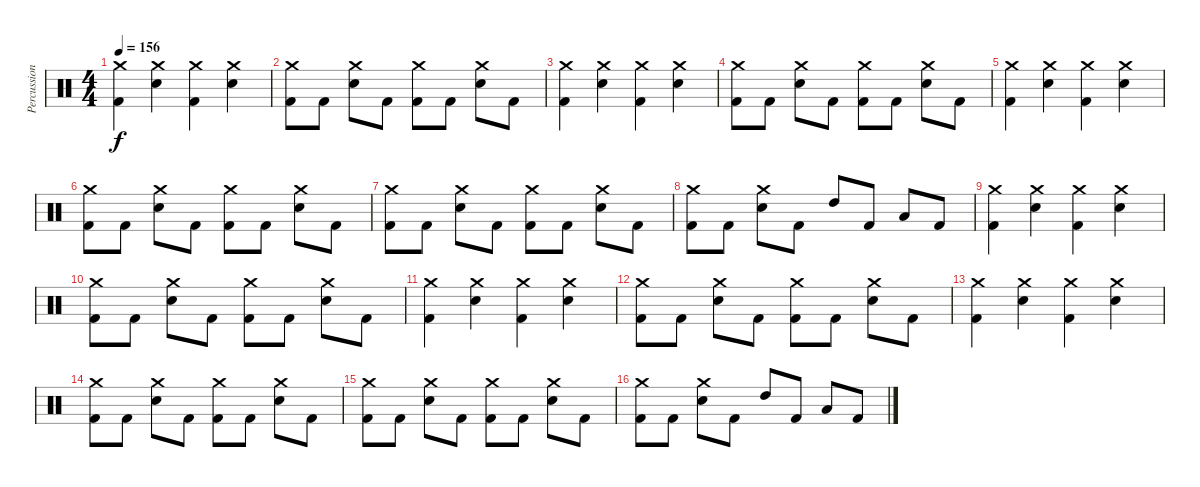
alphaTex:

\track ("Percussion" "Percussion") {instrument percussion}
\staff {score}
\articulation defaults
\ts (4 4)
\tempo 156
\clef neutral
\ks c
("Crash medium (hit)" "Kick (hit) 2").4{dy f} ("Crash medium (hit)" "Electric Snare (hit)").4 ("Crash medium (hit)" "Kick (hit) 2").4 ("Crash medium (hit)" "Electric Snare (hit)").4 |
("Crash medium (hit)" "Kick (hit) 2").8 "Kick (hit) 2".8 ("Crash medium (hit)" "Electric Snare (hit)").8 "Kick (hit) 2".8 ("Crash medium (hit)" "Kick (hit) 2").8 "Kick (hit) 2".8 ("Crash medium (hit)" "Electric Snare (hit)").8 "Kick (hit) 2".8 |
("Crash medium (hit)" "Kick (hit) 2").4 ("Crash medium (hit)" "Electric Snare (hit)").4 ("Crash medium (hit)" "Kick (hit) 2").4 ("Crash medium (hit)" "Electric Snare (hit)").4 |
("Crash medium (hit)" "Kick (hit) 2").8 "Kick (hit) 2".8 ("Crash medium (hit)" "Electric Snare (hit)").8 "Kick (hit) 2".8 ("Crash medium (hit)" "Kick (hit) 2").8 "Kick (hit) 2".8 ("Crash medium (hit)" "Electric Snare (hit)").8 "Kick (hit) 2".8 |
("Crash medium (hit)" "Kick (hit) 2").4 ("Crash medium (hit)" "Electric Snare (hit)").4 ("Crash medium (hit)" "Kick (hit) 2").4 ("Crash medium (hit)" "Electric Snare (hit)").4 |
("Crash medium (hit)" "Kick (hit) 2").8 "Kick (hit) 2".8 ("Crash medium (hit)" "Electric Snare (hit)").8 "Kick (hit) 2".8 ("Crash medium (hit)" "Kick (hit) 2").8 "Kick (hit) 2".8 ("Crash medium (hit)" "Electric Snare (hit)").8 "Kick (hit) 2".8 |
("Crash medium (hit)" "Kick (hit) 2").8 "Kick (hit) 2".8 ("Crash medium (hit)" "Electric Snare (hit)").8 "Kick (hit) 2".8 ("Crash medium (hit)" "Kick (hit) 2").8 "Kick (hit) 2".8 ("Crash medium (hit)" "Electric Snare (hit)").8 "Kick (hit) 2".8 |
("Crash medium (hit)" "Kick (hit) 2").8 "Kick (hit) 2".8 ("Crash medium (hit)" "Electric Snare (hit)").8 "Kick (hit) 2".8 "High Tom (hit)".8 "Kick (hit) 2".8 "Low Tom (hit)".8 "Kick (hit) 2".8 |
("Crash medium (hit)" "Kick (hit) 2").4 ("Crash medium (hit)" "Electric Snare (hit)").4 ("Crash medium (hit)" "Kick (hit) 2").4 ("Crash medium (hit)" "Electric Snare (hit)").4 |
("Crash medium (hit)" "Kick (hit) 2").8 "Kick (hit) 2".8 ("Crash medium (hit)" "Electric Snare (hit)").8 "Kick (hit) 2".8 ("Crash medium (hit)" "Kick (hit) 2").8 "Kick (hit) 2".8 ("Crash medium (hit)" "Electric Snare (hit)").8 "Kick (hit) 2".8 |
("Crash medium (hit)" "Kick (hit) 2").4 ("Crash medium (hit)" "Electric Snare (hit)").4 ("Crash medium (hit)" "Kick (hit) 2").4 ("Crash medium (hit)" "Electric Snare (hit)").4 |
("Crash medium (hit)" "Kick (hit) 2").8 "Kick (hit) 2".8 ("Crash medium (hit)" "Electric Snare (hit)").8 "Kick (hit) 2".8 ("Crash medium (hit)" "Kick (hit) 2").8 "Kick (hit) 2".8 ("Crash medium (hit)" "Electric Snare (hit)").8 "Kick (hit) 2".8 |
("Crash medium (hit)" "Kick (hit) 2").4 ("Crash medium (hit)" "Electric Snare (hit)").4 ("Crash medium (hit)" "Kick (hit) 2").4 ("Crash medium (hit)" "Electric Snare (hit)").4 |
("Crash medium (hit)" "Kick (hit) 2").8 "Kick (hit) 2".8 ("Crash medium (hit)" "Electric Snare (hit)").8 "Kick (hit) 2".8 ("Crash medium (hit)" "Kick (hit) 2").8 "Kick (hit) 2".8 ("Crash medium (hit)" "Electric Snare (hit)").8 "Kick (hit) 2".8 |
("Crash medium (hit)" "Kick (hit) 2").8 "Kick (hit) 2".8 ("Crash medium (hit)" "Electric Snare (hit)").8 "Kick (hit) 2".8 ("Crash medium (hit)" "Kick (hit) 2").8 "Kick (hit) 2".8 ("Crash medium (hit)" "Electric Snare (hit)").8 "Kick (hit) 2".8 |
("Crash medium (hit)" "Kick (hit) 2").8 "Kick (hit) 2".8 ("Crash medium (hit)" "Electric Snare (hit)").8 "Kick (hit) 2".8 "High Tom (hit)".8 "Kick (hit) 2".8 "Low Tom (hit)".8 "Kick (hit) 2".8
